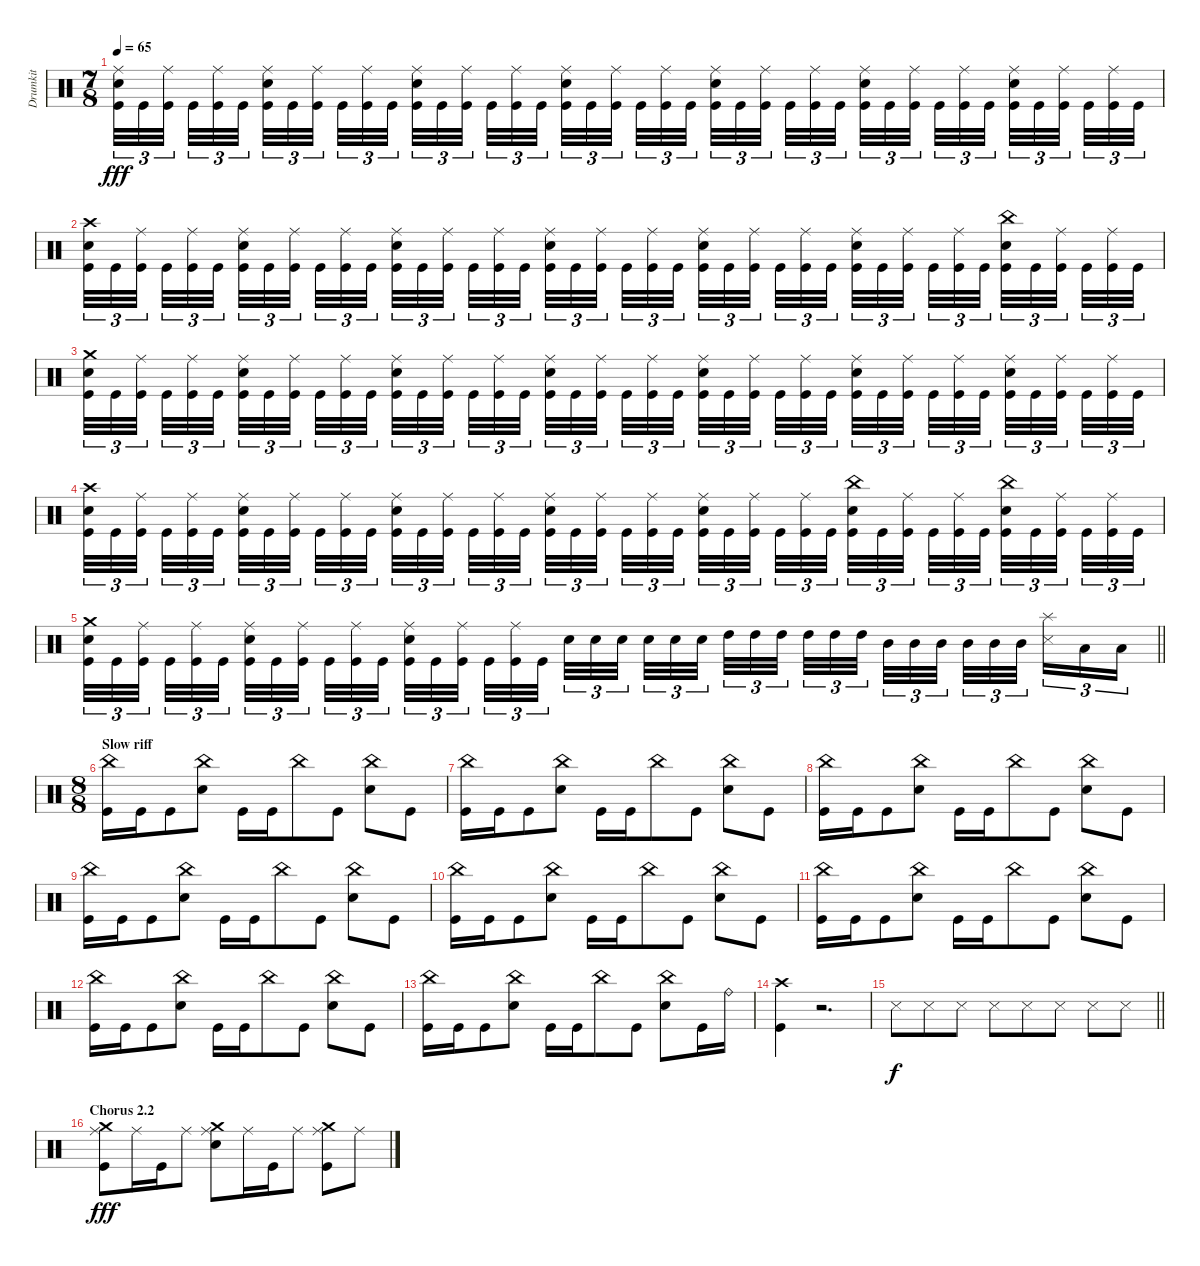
\track ("Drumkit" "Drumkit") {instrument percussion}
\staff {score}
\articulation defaults
\ts (7 8)
\tempo 65
\clef neutral
\ks c
("Kick (hit)" "Snare (hit) 2" "Ride (middle)").32{tu (3 2) dy fff} "Kick (hit)".32{tu (3 2)} ("Kick (hit)" "Ride (middle)").32{tu (3 2) beam splitsecondary} "Kick (hit)".32{tu (3 2)} ("Kick (hit)" "Ride (middle)").32{tu (3 2)} "Kick (hit)".32{tu (3 2)} ("Kick (hit)" "Snare (hit) 2" "Ride (middle)").32{tu (3 2)} "Kick (hit)".32{tu (3 2)} ("Kick (hit)" "Ride (middle)").32{tu (3 2) beam splitsecondary} "Kick (hit)".32{tu (3 2)} ("Kick (hit)" "Ride (middle)").32{tu (3 2)} "Kick (hit)".32{tu (3 2)} ("Kick (hit)" "Snare (hit) 2" "Ride (middle)").32{tu (3 2)} "Kick (hit)".32{tu (3 2)} ("Kick (hit)" "Ride (middle)").32{tu (3 2) beam splitsecondary} "Kick (hit)".32{tu (3 2)} ("Kick (hit)" "Ride (middle)").32{tu (3 2)} "Kick (hit)".32{tu (3 2)} ("Kick (hit)" "Snare (hit) 2" "Ride (middle)").32{tu (3 2)} "Kick (hit)".32{tu (3 2)} ("Kick (hit)" "Ride (middle)").32{tu (3 2) beam splitsecondary} "Kick (hit)".32{tu (3 2)} ("Kick (hit)" "Ride (middle)").32{tu (3 2)} "Kick (hit)".32{tu (3 2)} ("Kick (hit)" "Snare (hit) 2" "Ride (middle)").32{tu (3 2)} "Kick (hit)".32{tu (3 2)} ("Kick (hit)" "Ride (middle)").32{tu (3 2) beam splitsecondary} "Kick (hit)".32{tu (3 2)} ("Kick (hit)" "Ride (middle)").32{tu (3 2)} "Kick (hit)".32{tu (3 2)} ("Kick (hit)" "Snare (hit) 2" "Ride (middle)").32{tu (3 2)} "Kick (hit)".32{tu (3 2)} ("Kick (hit)" "Ride (middle)").32{tu (3 2) beam splitsecondary} "Kick (hit)".32{tu (3 2)} ("Kick (hit)" "Ride (middle)").32{tu (3 2)} "Kick (hit)".32{tu (3 2)} ("Kick (hit)" "Snare (hit) 2" "Ride (middle)").32{tu (3 2)} "Kick (hit)".32{tu (3 2)} ("Kick (hit)" "Ride (middle)").32{tu (3 2) beam splitsecondary} "Kick (hit)".32{tu (3 2)} ("Kick (hit)" "Ride (middle)").32{tu (3 2)} "Kick (hit)".32{tu (3 2)} |
("Kick (hit)" "Snare (hit) 2" "Crash high (hit)").32{tu (3 2)} "Kick (hit)".32{tu (3 2)} ("Kick (hit)" "Ride (middle)").32{tu (3 2) beam splitsecondary} "Kick (hit)".32{tu (3 2)} ("Kick (hit)" "Ride (middle)").32{tu (3 2)} "Kick (hit)".32{tu (3 2)} ("Kick (hit)" "Snare (hit) 2" "Ride (middle)").32{tu (3 2)} "Kick (hit)".32{tu (3 2)} ("Kick (hit)" "Ride (middle)").32{tu (3 2) beam splitsecondary} "Kick (hit)".32{tu (3 2)} ("Kick (hit)" "Ride (middle)").32{tu (3 2)} "Kick (hit)".32{tu (3 2)} ("Kick (hit)" "Snare (hit) 2" "Ride (middle)").32{tu (3 2)} "Kick (hit)".32{tu (3 2)} ("Kick (hit)" "Ride (middle)").32{tu (3 2) beam splitsecondary} "Kick (hit)".32{tu (3 2)} ("Kick (hit)" "Ride (middle)").32{tu (3 2)} "Kick (hit)".32{tu (3 2)} ("Kick (hit)" "Snare (hit) 2" "Ride (middle)").32{tu (3 2)} "Kick (hit)".32{tu (3 2)} ("Kick (hit)" "Ride (middle)").32{tu (3 2) beam splitsecondary} "Kick (hit)".32{tu (3 2)} ("Kick (hit)" "Ride (middle)").32{tu (3 2)} "Kick (hit)".32{tu (3 2)} ("Kick (hit)" "Snare (hit) 2" "Ride (middle)").32{tu (3 2)} "Kick (hit)".32{tu (3 2)} ("Kick (hit)" "Ride (middle)").32{tu (3 2) beam splitsecondary} "Kick (hit)".32{tu (3 2)} ("Kick (hit)" "Ride (middle)").32{tu (3 2)} "Kick (hit)".32{tu (3 2)} ("Kick (hit)" "Snare (hit) 2" "Ride (middle)").32{tu (3 2)} "Kick (hit)".32{tu (3 2)} ("Kick (hit)" "Ride (middle)").32{tu (3 2) beam splitsecondary} "Kick (hit)".32{tu (3 2)} ("Kick (hit)" "Ride (middle)").32{tu (3 2)} "Kick (hit)".32{tu (3 2)} ("Kick (hit)" "Snare (hit) 2" "China (hit)").32{tu (3 2)} "Kick (hit)".32{tu (3 2)} ("Kick (hit)" "Ride (middle)").32{tu (3 2) beam splitsecondary} "Kick (hit)".32{tu (3 2)} ("Kick (hit)" "Ride (middle)").32{tu (3 2)} "Kick (hit)".32{tu (3 2)} |
("Kick (hit)" "Snare (hit) 2" "Crash medium (hit)").32{tu (3 2)} "Kick (hit)".32{tu (3 2)} ("Kick (hit)" "Ride (middle)").32{tu (3 2) beam splitsecondary} "Kick (hit)".32{tu (3 2)} ("Kick (hit)" "Ride (middle)").32{tu (3 2)} "Kick (hit)".32{tu (3 2)} ("Kick (hit)" "Snare (hit) 2" "Ride (middle)").32{tu (3 2)} "Kick (hit)".32{tu (3 2)} ("Kick (hit)" "Ride (middle)").32{tu (3 2) beam splitsecondary} "Kick (hit)".32{tu (3 2)} ("Kick (hit)" "Ride (middle)").32{tu (3 2)} "Kick (hit)".32{tu (3 2)} ("Kick (hit)" "Snare (hit) 2" "Ride (middle)").32{tu (3 2)} "Kick (hit)".32{tu (3 2)} ("Kick (hit)" "Ride (middle)").32{tu (3 2) beam splitsecondary} "Kick (hit)".32{tu (3 2)} ("Kick (hit)" "Ride (middle)").32{tu (3 2)} "Kick (hit)".32{tu (3 2)} ("Kick (hit)" "Snare (hit) 2" "Ride (middle)").32{tu (3 2)} "Kick (hit)".32{tu (3 2)} ("Kick (hit)" "Ride (middle)").32{tu (3 2) beam splitsecondary} "Kick (hit)".32{tu (3 2)} ("Kick (hit)" "Ride (middle)").32{tu (3 2)} "Kick (hit)".32{tu (3 2)} ("Kick (hit)" "Snare (hit) 2" "Ride (middle)").32{tu (3 2)} "Kick (hit)".32{tu (3 2)} ("Kick (hit)" "Ride (middle)").32{tu (3 2) beam splitsecondary} "Kick (hit)".32{tu (3 2)} ("Kick (hit)" "Ride (middle)").32{tu (3 2)} "Kick (hit)".32{tu (3 2)} ("Kick (hit)" "Snare (hit) 2" "Ride (middle)").32{tu (3 2)} "Kick (hit)".32{tu (3 2)} ("Kick (hit)" "Ride (middle)").32{tu (3 2) beam splitsecondary} "Kick (hit)".32{tu (3 2)} ("Kick (hit)" "Ride (middle)").32{tu (3 2)} "Kick (hit)".32{tu (3 2)} ("Kick (hit)" "Snare (hit) 2" "Ride (middle)").32{tu (3 2)} "Kick (hit)".32{tu (3 2)} ("Kick (hit)" "Ride (middle)").32{tu (3 2) beam splitsecondary} "Kick (hit)".32{tu (3 2)} ("Kick (hit)" "Ride (middle)").32{tu (3 2)} "Kick (hit)".32{tu (3 2)} |
("Kick (hit)" "Snare (hit) 2" "Crash high (hit)").32{tu (3 2)} "Kick (hit)".32{tu (3 2)} ("Kick (hit)" "Ride (middle)").32{tu (3 2) beam splitsecondary} "Kick (hit)".32{tu (3 2)} ("Kick (hit)" "Ride (middle)").32{tu (3 2)} "Kick (hit)".32{tu (3 2)} ("Kick (hit)" "Snare (hit) 2" "Ride (middle)").32{tu (3 2)} "Kick (hit)".32{tu (3 2)} ("Kick (hit)" "Ride (middle)").32{tu (3 2) beam splitsecondary} "Kick (hit)".32{tu (3 2)} ("Kick (hit)" "Ride (middle)").32{tu (3 2)} "Kick (hit)".32{tu (3 2)} ("Kick (hit)" "Snare (hit) 2" "Ride (middle)").32{tu (3 2)} "Kick (hit)".32{tu (3 2)} ("Kick (hit)" "Ride (middle)").32{tu (3 2) beam splitsecondary} "Kick (hit)".32{tu (3 2)} ("Kick (hit)" "Ride (middle)").32{tu (3 2)} "Kick (hit)".32{tu (3 2)} ("Kick (hit)" "Snare (hit) 2" "Ride (middle)").32{tu (3 2)} "Kick (hit)".32{tu (3 2)} ("Kick (hit)" "Ride (middle)").32{tu (3 2) beam splitsecondary} "Kick (hit)".32{tu (3 2)} ("Kick (hit)" "Ride (middle)").32{tu (3 2)} "Kick (hit)".32{tu (3 2)} ("Kick (hit)" "Snare (hit) 2" "Ride (middle)").32{tu (3 2)} "Kick (hit)".32{tu (3 2)} ("Kick (hit)" "Ride (middle)").32{tu (3 2) beam splitsecondary} "Kick (hit)".32{tu (3 2)} ("Kick (hit)" "Ride (middle)").32{tu (3 2)} "Kick (hit)".32{tu (3 2)} ("Kick (hit)" "Snare (hit) 2" "China (hit)").32{tu (3 2)} "Kick (hit)".32{tu (3 2)} ("Kick (hit)" "Ride (middle)").32{tu (3 2) beam splitsecondary} "Kick (hit)".32{tu (3 2)} ("Kick (hit)" "Ride (middle)").32{tu (3 2)} "Kick (hit)".32{tu (3 2)} ("Kick (hit)" "Snare (hit) 2" "China (hit)").32{tu (3 2)} "Kick (hit)".32{tu (3 2)} ("Kick (hit)" "Ride (middle)").32{tu (3 2) beam splitsecondary} "Kick (hit)".32{tu (3 2)} ("Kick (hit)" "Ride (middle)").32{tu (3 2)} "Kick (hit)".32{tu (3 2)} |
\barLineRight lightlight
("Kick (hit)" "Snare (hit) 2" "Crash medium (hit)").32{tu (3 2)} "Kick (hit)".32{tu (3 2)} ("Kick (hit)" "Ride (middle)").32{tu (3 2) beam splitsecondary} "Kick (hit)".32{tu (3 2)} ("Kick (hit)" "Ride (middle)").32{tu (3 2)} "Kick (hit)".32{tu (3 2)} ("Kick (hit)" "Snare (hit) 2" "Ride (middle)").32{tu (3 2)} "Kick (hit)".32{tu (3 2)} ("Kick (hit)" "Ride (middle)").32{tu (3 2) beam splitsecondary} "Kick (hit)".32{tu (3 2)} ("Kick (hit)" "Ride (middle)").32{tu (3 2)} "Kick (hit)".32{tu (3 2)} ("Kick (hit)" "Snare (hit) 2" "Ride (middle)").32{tu (3 2)} "Kick (hit)".32{tu (3 2)} ("Kick (hit)" "Ride (middle)").32{tu (3 2) beam splitsecondary} "Kick (hit)".32{tu (3 2)} ("Kick (hit)" "Ride (middle)").32{tu (3 2)} "Kick (hit)".32{tu (3 2)} "Snare (hit) 2".32{tu (3 2)} "Snare (hit) 2".32{tu (3 2)} "Snare (hit) 2".32{tu (3 2) beam splitsecondary} "Snare (hit) 2".32{tu (3 2)} "Snare (hit) 2".32{tu (3 2)} "Snare (hit) 2".32{tu (3 2)} "High Tom (hit)".32{tu (3 2)} "High Tom (hit)".32{tu (3 2)} "High Tom (hit)".32{tu (3 2) beam splitsecondary} "High Tom (hit)".32{tu (3 2)} "High Tom (hit)".32{tu (3 2)} "High Tom (hit)".32{tu (3 2)} "Mid Tom (hit)".32{tu (3 2)} "Mid Tom (hit)".32{tu (3 2)} "Mid Tom (hit)".32{tu (3 2) beam splitsecondary} "Mid Tom (hit)".32{tu (3 2)} "Mid Tom (hit)".32{tu (3 2)} "Mid Tom (hit)".32{tu (3 2)} ("Snare (side stick) 3" "Splash (hit)").16{tu (3 2)} "Low Tom (hit)".16{tu (3 2)} "Low Tom (hit)".16{tu (3 2)} |
\ts (8 8)
\section ("" "Slow riff")
("Kick (hit)" "China (hit)").16 "Kick (hit)".16 "Kick (hit)".8 ("Snare (hit) 2" "China (hit)").8 "Kick (hit)".16 "Kick (hit)".16 "China (hit)".8 "Kick (hit)".8 ("Snare (hit) 2" "China (hit)").8 "Kick (hit)".8 |
("Kick (hit)" "China (hit)").16 "Kick (hit)".16 "Kick (hit)".8 ("Snare (hit) 2" "China (hit)").8 "Kick (hit)".16 "Kick (hit)".16 "China (hit)".8 "Kick (hit)".8 ("Snare (hit) 2" "China (hit)").8 "Kick (hit)".8 |
("Kick (hit)" "China (hit)").16 "Kick (hit)".16 "Kick (hit)".8 ("Snare (hit) 2" "China (hit)").8 "Kick (hit)".16 "Kick (hit)".16 "China (hit)".8 "Kick (hit)".8 ("Snare (hit) 2" "China (hit)").8 "Kick (hit)".8 |
("Kick (hit)" "China (hit)").16 "Kick (hit)".16 "Kick (hit)".8 ("Snare (hit) 2" "China (hit)").8 "Kick (hit)".16 "Kick (hit)".16 "China (hit)".8 "Kick (hit)".8 ("Snare (hit) 2" "China (hit)").8 "Kick (hit)".8 |
("Kick (hit)" "China (hit)").16 "Kick (hit)".16 "Kick (hit)".8 ("Snare (hit) 2" "China (hit)").8 "Kick (hit)".16 "Kick (hit)".16 "China (hit)".8 "Kick (hit)".8 ("Snare (hit) 2" "China (hit)").8 "Kick (hit)".8 |
("Kick (hit)" "China (hit)").16 "Kick (hit)".16 "Kick (hit)".8 ("Snare (hit) 2" "China (hit)").8 "Kick (hit)".16 "Kick (hit)".16 "China (hit)".8 "Kick (hit)".8 ("Snare (hit) 2" "China (hit)").8 "Kick (hit)".8 |
("Kick (hit)" "China (hit)").16 "Kick (hit)".16 "Kick (hit)".8 ("Snare (hit) 2" "China (hit)").8 "Kick (hit)".16 "Kick (hit)".16 "China (hit)".8 "Kick (hit)".8 ("Snare (hit) 2" "China (hit)").8 "Kick (hit)".8 |
("Kick (hit)" "China (hit)").16 "Kick (hit)".16 "Kick (hit)".8 ("Snare (hit) 2" "China (hit)").8 "Kick (hit)".16 "Kick (hit)".16 "China (hit)".8 "Kick (hit)".8 ("Snare (hit) 2" "China (hit)").8 "Kick (hit)".16 "Ride (bell)".16 |
("Kick (hit)" "Crash high (hit)").4 r.2{d} |
\barLineRight lightlight "Snare (side stick) 3".8{dy f} "Snare (side stick) 3".8 "Snare (side stick) 3".8 "Snare (side stick) 3".8 "Snare (side stick) 3".8 "Snare (side stick) 3".8 "Snare (side stick) 3".8 "Snare (side stick) 3".8
|
\section ("" "Chorus 2.2")
("Ride (middle)" "Crash medium (hit)" "Kick (hit)").8{dy fff} "Ride (middle)".16 "Kick (hit)".16 "Ride (middle)".8 ("Ride (middle)" "Crash medium (hit)" "Snare (hit) 2").8 "Ride (middle)".16 "Kick (hit)".16 "Ride (middle)".8 ("Ride (middle)" "Crash medium (hit)" "Kick (hit)").8 "Ride (middle)".8
